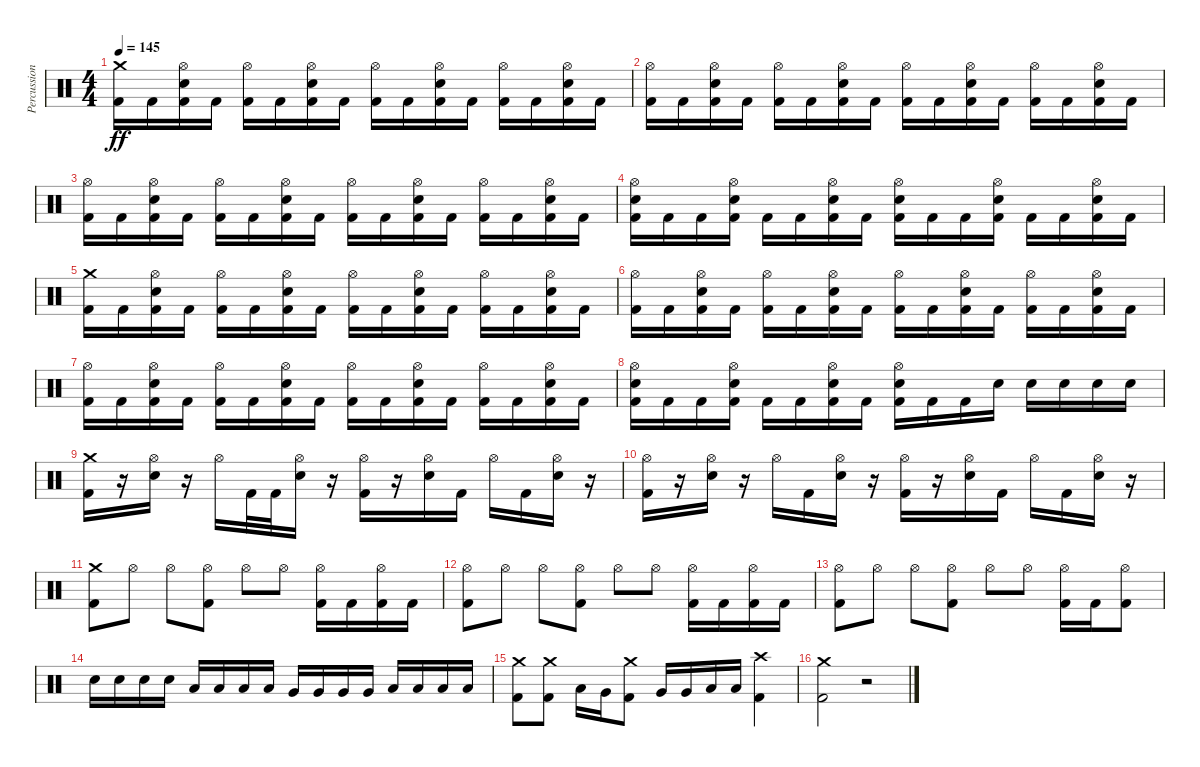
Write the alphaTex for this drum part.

\track ("Percussion" "Percussion") {instrument percussion}
\staff {score}
\articulation defaults
\ts (4 4)
\tempo 145
\clef neutral
\ks c
("Crash medium (hit)" "Kick (hit) 2").16{dy ff} "Kick (hit) 2".16 ("Electric Snare (hit)" "Hi-Hat (open)" "Kick (hit) 2").16 "Kick (hit) 2".16 ("Hi-Hat (open)" "Kick (hit) 2").16 "Kick (hit) 2".16 ("Electric Snare (hit)" "Hi-Hat (open)" "Kick (hit) 2").16 "Kick (hit) 2".16 ("Hi-Hat (open)" "Kick (hit) 2").16 "Kick (hit) 2".16 ("Electric Snare (hit)" "Hi-Hat (open)" "Kick (hit) 2").16 "Kick (hit) 2".16 ("Hi-Hat (open)" "Kick (hit) 2").16 "Kick (hit) 2".16 ("Electric Snare (hit)" "Hi-Hat (open)" "Kick (hit) 2").16 "Kick (hit) 2".16 |
("Hi-Hat (open)" "Kick (hit) 2").16 "Kick (hit) 2".16 ("Electric Snare (hit)" "Hi-Hat (open)" "Kick (hit) 2").16 "Kick (hit) 2".16 ("Hi-Hat (open)" "Kick (hit) 2").16 "Kick (hit) 2".16 ("Electric Snare (hit)" "Hi-Hat (open)" "Kick (hit) 2").16 "Kick (hit) 2".16 ("Hi-Hat (open)" "Kick (hit) 2").16 "Kick (hit) 2".16 ("Electric Snare (hit)" "Hi-Hat (open)" "Kick (hit) 2").16 "Kick (hit) 2".16 ("Hi-Hat (open)" "Kick (hit) 2").16 "Kick (hit) 2".16 ("Electric Snare (hit)" "Hi-Hat (open)" "Kick (hit) 2").16 "Kick (hit) 2".16 |
("Hi-Hat (open)" "Kick (hit) 2").16 "Kick (hit) 2".16 ("Electric Snare (hit)" "Hi-Hat (open)" "Kick (hit) 2").16 "Kick (hit) 2".16 ("Hi-Hat (open)" "Kick (hit) 2").16 "Kick (hit) 2".16 ("Electric Snare (hit)" "Hi-Hat (open)" "Kick (hit) 2").16 "Kick (hit) 2".16 ("Hi-Hat (open)" "Kick (hit) 2").16 "Kick (hit) 2".16 ("Electric Snare (hit)" "Hi-Hat (open)" "Kick (hit) 2").16 "Kick (hit) 2".16 ("Hi-Hat (open)" "Kick (hit) 2").16 "Kick (hit) 2".16 ("Electric Snare (hit)" "Hi-Hat (open)" "Kick (hit) 2").16 "Kick (hit) 2".16 |
("Electric Snare (hit)" "Hi-Hat (open)" "Kick (hit) 2").16 "Kick (hit) 2".16 "Kick (hit) 2".16 ("Electric Snare (hit)" "Hi-Hat (open)" "Kick (hit) 2").16 "Kick (hit) 2".16 "Kick (hit) 2".16 ("Electric Snare (hit)" "Hi-Hat (open)" "Kick (hit) 2").16 "Kick (hit) 2".16 ("Electric Snare (hit)" "Hi-Hat (open)" "Kick (hit) 2").16 "Kick (hit) 2".16 "Kick (hit) 2".16 ("Electric Snare (hit)" "Hi-Hat (open)" "Kick (hit) 2").16 "Kick (hit) 2".16 "Kick (hit) 2".16 ("Electric Snare (hit)" "Hi-Hat (open)" "Kick (hit) 2").16 "Kick (hit) 2".16 |
("Crash medium (hit)" "Kick (hit) 2").16 "Kick (hit) 2".16 ("Electric Snare (hit)" "Hi-Hat (open)" "Kick (hit) 2").16 "Kick (hit) 2".16 ("Hi-Hat (open)" "Kick (hit) 2").16 "Kick (hit) 2".16 ("Electric Snare (hit)" "Hi-Hat (open)" "Kick (hit) 2").16 "Kick (hit) 2".16 ("Hi-Hat (open)" "Kick (hit) 2").16 "Kick (hit) 2".16 ("Electric Snare (hit)" "Hi-Hat (open)" "Kick (hit) 2").16 "Kick (hit) 2".16 ("Hi-Hat (open)" "Kick (hit) 2").16 "Kick (hit) 2".16 ("Electric Snare (hit)" "Hi-Hat (open)" "Kick (hit) 2").16 "Kick (hit) 2".16 |
("Hi-Hat (open)" "Kick (hit) 2").16 "Kick (hit) 2".16 ("Electric Snare (hit)" "Hi-Hat (open)" "Kick (hit) 2").16 "Kick (hit) 2".16 ("Hi-Hat (open)" "Kick (hit) 2").16 "Kick (hit) 2".16 ("Electric Snare (hit)" "Hi-Hat (open)" "Kick (hit) 2").16 "Kick (hit) 2".16 ("Hi-Hat (open)" "Kick (hit) 2").16 "Kick (hit) 2".16 ("Electric Snare (hit)" "Hi-Hat (open)" "Kick (hit) 2").16 "Kick (hit) 2".16 ("Hi-Hat (open)" "Kick (hit) 2").16 "Kick (hit) 2".16 ("Electric Snare (hit)" "Hi-Hat (open)" "Kick (hit) 2").16 "Kick (hit) 2".16 |
("Hi-Hat (open)" "Kick (hit) 2").16 "Kick (hit) 2".16 ("Electric Snare (hit)" "Hi-Hat (open)" "Kick (hit) 2").16 "Kick (hit) 2".16 ("Hi-Hat (open)" "Kick (hit) 2").16 "Kick (hit) 2".16 ("Electric Snare (hit)" "Hi-Hat (open)" "Kick (hit) 2").16 "Kick (hit) 2".16 ("Hi-Hat (open)" "Kick (hit) 2").16 "Kick (hit) 2".16 ("Electric Snare (hit)" "Hi-Hat (open)" "Kick (hit) 2").16 "Kick (hit) 2".16 ("Hi-Hat (open)" "Kick (hit) 2").16 "Kick (hit) 2".16 ("Electric Snare (hit)" "Hi-Hat (open)" "Kick (hit) 2").16 "Kick (hit) 2".16 |
("Electric Snare (hit)" "Hi-Hat (open)" "Kick (hit) 2").16 "Kick (hit) 2".16 "Kick (hit) 2".16 ("Electric Snare (hit)" "Hi-Hat (open)" "Kick (hit) 2").16 "Kick (hit) 2".16 "Kick (hit) 2".16 ("Electric Snare (hit)" "Hi-Hat (open)" "Kick (hit) 2").16 "Kick (hit) 2".16 ("Electric Snare (hit)" "Hi-Hat (open)" "Kick (hit) 2").16 "Kick (hit) 2".16 "Kick (hit) 2".16 "Electric Snare (hit)".16 "Electric Snare (hit)".16 "Electric Snare (hit)".16 "Electric Snare (hit)".16 "Electric Snare (hit)".16 |
("Crash medium (hit)" "Kick (hit) 2").16 r.16 ("Hi-Hat (open)" "Electric Snare (hit)").16 r.16 "Hi-Hat (open)".16 "Kick (hit) 2".32 "Kick (hit) 2".32 ("Hi-Hat (open)" "Electric Snare (hit)").16 r.16 ("Hi-Hat (open)" "Kick (hit) 2").16 r.16 ("Hi-Hat (open)" "Electric Snare (hit)").16 "Kick (hit) 2".16 "Hi-Hat (open)".16 "Kick (hit) 2".16 ("Hi-Hat (open)" "Electric Snare (hit)").16 r.16 |
("Hi-Hat (open)" "Kick (hit) 2").16 r.16 ("Hi-Hat (open)" "Electric Snare (hit)").16 r.16 "Hi-Hat (open)".16 "Kick (hit) 2".16 ("Hi-Hat (open)" "Electric Snare (hit)").16 r.16 ("Hi-Hat (open)" "Kick (hit) 2").16 r.16 ("Hi-Hat (open)" "Electric Snare (hit)").16 "Kick (hit) 2".16 "Hi-Hat (open)".16 "Kick (hit) 2".16 ("Hi-Hat (open)" "Electric Snare (hit)").16 r.16 |
("Crash medium (hit)" "Kick (hit) 2").8 "Hi-Hat (open)".8 "Hi-Hat (open)".8 ("Hi-Hat (open)" "Kick (hit) 2").8 "Hi-Hat (open)".8 "Hi-Hat (open)".8 ("Hi-Hat (open)" "Kick (hit) 2").16 "Kick (hit) 2".16 ("Hi-Hat (open)" "Kick (hit) 2").16 "Kick (hit) 2".16 |
("Hi-Hat (open)" "Kick (hit) 2").8 "Hi-Hat (open)".8 "Hi-Hat (open)".8 ("Hi-Hat (open)" "Kick (hit) 2").8 "Hi-Hat (open)".8 "Hi-Hat (open)".8 ("Hi-Hat (open)" "Kick (hit) 2").16 "Kick (hit) 2".16 ("Hi-Hat (open)" "Kick (hit) 2").16 "Kick (hit) 2".16 |
("Hi-Hat (open)" "Kick (hit) 2").8 "Hi-Hat (open)".8 "Hi-Hat (open)".8 ("Hi-Hat (open)" "Kick (hit) 2").8 "Hi-Hat (open)".8 "Hi-Hat (open)".8 ("Hi-Hat (open)" "Kick (hit) 2").16 "Kick (hit) 2".16 ("Hi-Hat (open)" "Kick (hit) 2").8 |
"Electric Snare (hit)".16 "Electric Snare (hit)".16 "Electric Snare (hit)".16 "Electric Snare (hit)".16 "Low Tom (hit)".16 "Low Tom (hit)".16 "Low Tom (hit)".16 "Low Tom (hit)".16 "Very Low Tom (hit)".16 "Very Low Tom (hit)".16 "Very Low Tom (hit)".16 "Very Low Tom (hit)".16 "Low Floor Tom (hit)".16 "Low Floor Tom (hit)".16 "Low Floor Tom (hit)".16 "Low Floor Tom (hit)".16 |
("Crash medium (hit)" "Kick (hit) 2").8 ("Crash medium (hit)" "Kick (hit) 2").8 "Low Tom (hit)".16 "Very Low Tom (hit)".16 ("Crash medium (hit)" "Kick (hit) 2").8 "Very Low Tom (hit)".16 "Very Low Tom (hit)".16 "Low Floor Tom (hit)".16 "Low Floor Tom (hit)".16 ("Crash high (hit)" "Kick (hit) 2").4 |
("Crash medium (hit)" "Kick (hit) 2").2 r.2
